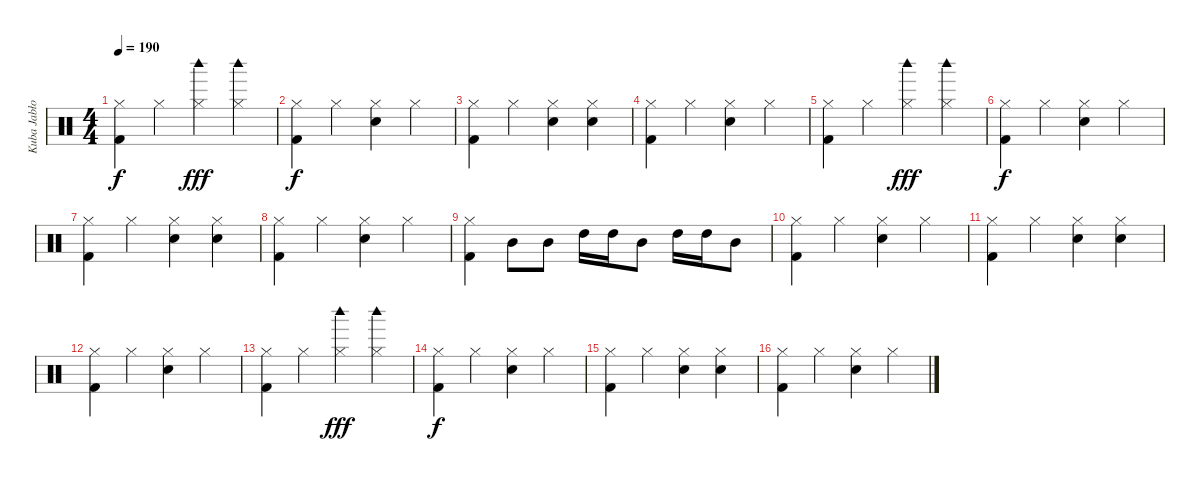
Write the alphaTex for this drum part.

\track ("Kuba Jabłoński" "Kuba Jabło") {instrument percussion}
\staff {score}
\articulation defaults
\ts (4 4)
\tempo 190
\clef neutral
\ks c
("Kick (hit) 2" "Hi-Hat (closed)").4{dy f} "Hi-Hat (closed)".4 ("Woodblock high (hit)" "Hi-Hat (closed)").4{dy fff} ("Woodblock high (hit)" "Hi-Hat (closed)").4 |
("Kick (hit) 2" "Hi-Hat (closed)").4{dy f} "Hi-Hat (closed)".4 ("Snare (hit) 2" "Hi-Hat (closed)").4 "Hi-Hat (closed)".4 |
("Kick (hit) 2" "Hi-Hat (closed)").4 "Hi-Hat (closed)".4 ("Snare (hit) 2" "Hi-Hat (closed)").4 ("Snare (hit) 2" "Hi-Hat (closed)").4 |
("Kick (hit) 2" "Hi-Hat (closed)").4 "Hi-Hat (closed)".4 ("Snare (hit) 2" "Hi-Hat (closed)").4 "Hi-Hat (closed)".4 |
("Kick (hit) 2" "Hi-Hat (closed)").4 "Hi-Hat (closed)".4 ("Woodblock high (hit)" "Hi-Hat (closed)").4{dy fff} ("Woodblock high (hit)" "Hi-Hat (closed)").4 |
("Kick (hit) 2" "Hi-Hat (closed)").4{dy f} "Hi-Hat (closed)".4 ("Snare (hit) 2" "Hi-Hat (closed)").4 "Hi-Hat (closed)".4 |
("Kick (hit) 2" "Hi-Hat (closed)").4 "Hi-Hat (closed)".4 ("Snare (hit) 2" "Hi-Hat (closed)").4 ("Snare (hit) 2" "Hi-Hat (closed)").4 |
("Kick (hit) 2" "Hi-Hat (closed)").4 "Hi-Hat (closed)".4 ("Snare (hit) 2" "Hi-Hat (closed)").4 "Hi-Hat (closed)".4 |
("Kick (hit) 2" "Hi-Hat (closed)").4 "Mid Tom (hit)".8 "Mid Tom (hit)".8 "High Tom (hit)".16 "High Tom (hit)".16 "Mid Tom (hit)".8 "High Tom (hit)".16 "High Tom (hit)".16 "Mid Tom (hit)".8 |
("Kick (hit) 2" "Hi-Hat (closed)").4 "Hi-Hat (closed)".4 ("Snare (hit) 2" "Hi-Hat (closed)").4 "Hi-Hat (closed)".4 |
("Kick (hit) 2" "Hi-Hat (closed)").4 "Hi-Hat (closed)".4 ("Snare (hit) 2" "Hi-Hat (closed)").4 ("Snare (hit) 2" "Hi-Hat (closed)").4 |
("Kick (hit) 2" "Hi-Hat (closed)").4 "Hi-Hat (closed)".4 ("Snare (hit) 2" "Hi-Hat (closed)").4 "Hi-Hat (closed)".4 |
("Kick (hit) 2" "Hi-Hat (closed)").4 "Hi-Hat (closed)".4 ("Woodblock high (hit)" "Hi-Hat (closed)").4{dy fff} ("Woodblock high (hit)" "Hi-Hat (closed)").4 |
("Kick (hit) 2" "Hi-Hat (closed)").4{dy f} "Hi-Hat (closed)".4 ("Snare (hit) 2" "Hi-Hat (closed)").4 "Hi-Hat (closed)".4 |
("Kick (hit) 2" "Hi-Hat (closed)").4 "Hi-Hat (closed)".4 ("Snare (hit) 2" "Hi-Hat (closed)").4 ("Snare (hit) 2" "Hi-Hat (closed)").4 |
("Kick (hit) 2" "Hi-Hat (closed)").4 "Hi-Hat (closed)".4 ("Snare (hit) 2" "Hi-Hat (closed)").4 "Hi-Hat (closed)".4
